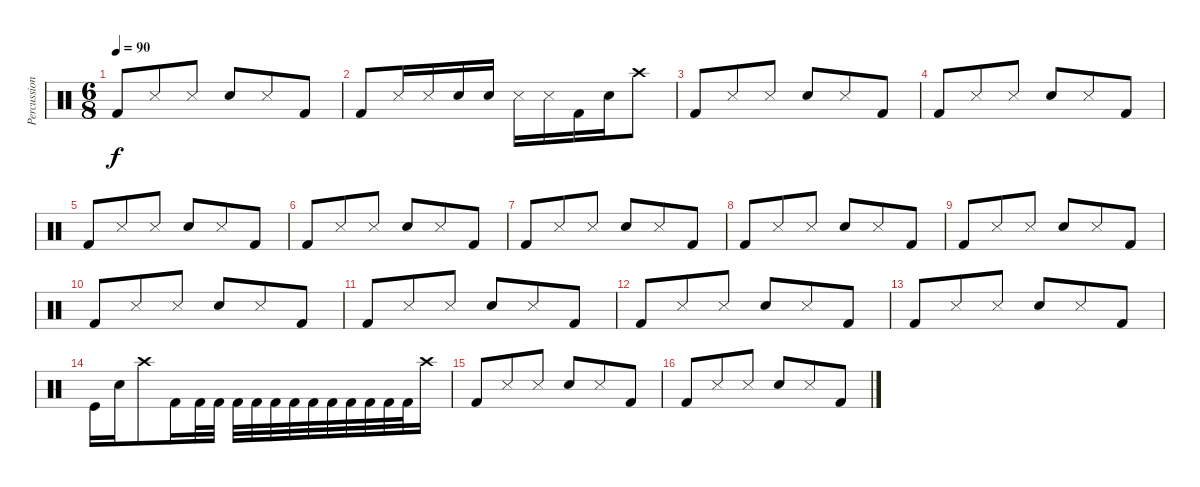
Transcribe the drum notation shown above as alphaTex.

\track ("Percussion" "Percussion") {instrument percussion}
\staff {score}
\articulation defaults
\ts (6 8)
\tempo 90
\clef neutral
\ks c "Kick (hit) 2".8{dy f} "Snare (side stick) 3".8 "Snare (side stick) 3".8 "Electric Snare (hit)".8 "Snare (side stick) 3".8 "Kick (hit) 2".8
|
"Kick (hit) 2".8 "Snare (side stick) 3".16 "Snare (side stick) 3".16 "Electric Snare (hit)".16 "Electric Snare (hit)".16 "Snare (side stick) 3".16 "Snare (side stick) 3".16 "Kick (hit) 2".16 "Electric Snare (hit)".16 "Crash high (hit)".8 |
"Kick (hit) 2".8 "Snare (side stick) 3".8 "Snare (side stick) 3".8 "Electric Snare (hit)".8 "Snare (side stick) 3".8 "Kick (hit) 2".8 |
"Kick (hit) 2".8 "Snare (side stick) 3".8 "Snare (side stick) 3".8 "Electric Snare (hit)".8 "Snare (side stick) 3".8 "Kick (hit) 2".8 |
"Kick (hit) 2".8 "Snare (side stick) 3".8 "Snare (side stick) 3".8 "Electric Snare (hit)".8 "Snare (side stick) 3".8 "Kick (hit) 2".8 |
"Kick (hit) 2".8 "Snare (side stick) 3".8 "Snare (side stick) 3".8 "Electric Snare (hit)".8 "Snare (side stick) 3".8 "Kick (hit) 2".8 |
"Kick (hit) 2".8 "Snare (side stick) 3".8 "Snare (side stick) 3".8 "Electric Snare (hit)".8 "Snare (side stick) 3".8 "Kick (hit) 2".8 |
"Kick (hit) 2".8 "Snare (side stick) 3".8 "Snare (side stick) 3".8 "Electric Snare (hit)".8 "Snare (side stick) 3".8 "Kick (hit) 2".8 |
"Kick (hit) 2".8 "Snare (side stick) 3".8 "Snare (side stick) 3".8 "Electric Snare (hit)".8 "Snare (side stick) 3".8 "Kick (hit) 2".8 |
"Kick (hit) 2".8 "Snare (side stick) 3".8 "Snare (side stick) 3".8 "Electric Snare (hit)".8 "Snare (side stick) 3".8 "Kick (hit) 2".8 |
"Kick (hit) 2".8 "Snare (side stick) 3".8 "Snare (side stick) 3".8 "Electric Snare (hit)".8 "Snare (side stick) 3".8 "Kick (hit) 2".8 |
"Kick (hit) 2".8 "Snare (side stick) 3".8 "Snare (side stick) 3".8 "Electric Snare (hit)".8 "Snare (side stick) 3".8 "Kick (hit) 2".8 |
"Kick (hit) 2".8 "Snare (side stick) 3".8 "Snare (side stick) 3".8 "Electric Snare (hit)".8 "Snare (side stick) 3".8 "Kick (hit) 2".8 |
"Kick (hit)".16 "Electric Snare (hit)".16 "Crash high (hit)".8 "Kick (hit) 2".16 "Kick (hit) 2".32 "Kick (hit) 2".32 "Kick (hit) 2".32 "Kick (hit) 2".32 "Kick (hit) 2".32 "Kick (hit) 2".32 "Kick (hit) 2".32 "Kick (hit) 2".32 "Kick (hit) 2".32 "Kick (hit) 2".32 "Kick (hit) 2".32 "Kick (hit) 2".32 "Crash high (hit)".16 |
"Kick (hit) 2".8 "Snare (side stick) 3".8 "Snare (side stick) 3".8 "Electric Snare (hit)".8 "Snare (side stick) 3".8 "Kick (hit) 2".8 |
"Kick (hit) 2".8 "Snare (side stick) 3".8 "Snare (side stick) 3".8 "Electric Snare (hit)".8 "Snare (side stick) 3".8 "Kick (hit) 2".8
